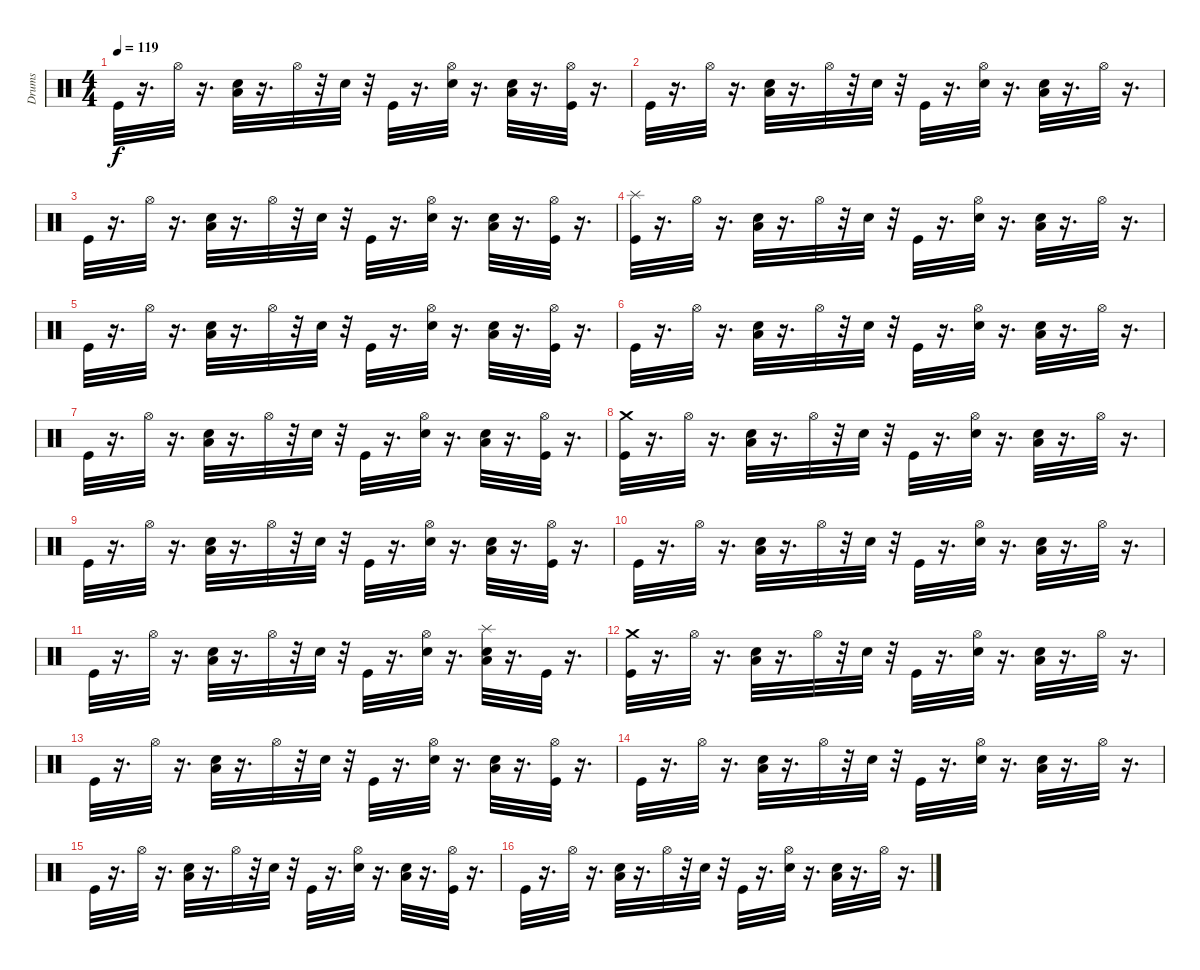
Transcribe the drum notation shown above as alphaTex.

\track ("Drums" "Drums") {instrument percussion}
\staff {score}
\articulation defaults
\ts (4 4)
\tempo 119
\clef neutral
\ks c "Kick (hit)".32{dy f}
r.16{d} "Hi-Hat (open)".32 r.16{d} ("Low Floor Tom (hit)" "Hand Clap (hit)").32 r.16{d} "Hi-Hat (open)".32 r.32 "Hand Clap (hit)".32 r.32 "Kick (hit)".32 r.16{d} ("Hi-Hat (open)" "Hand Clap (hit)").32 r.16{d} ("Low Floor Tom (hit)" "Hand Clap (hit)").32 r.16{d} ("Kick (hit)" "Hi-Hat (open)").32 r.16{d} |
"Kick (hit)".32 r.16{d} "Hi-Hat (open)".32 r.16{d} ("Low Floor Tom (hit)" "Hand Clap (hit)").32 r.16{d} "Hi-Hat (open)".32 r.32 "Hand Clap (hit)".32 r.32 "Kick (hit)".32 r.16{d} ("Hi-Hat (open)" "Hand Clap (hit)").32 r.16{d} ("Low Floor Tom (hit)" "Hand Clap (hit)").32 r.16{d} "Hi-Hat (open)".32 r.16{d} |
"Kick (hit)".32 r.16{d} "Hi-Hat (open)".32 r.16{d} ("Low Floor Tom (hit)" "Hand Clap (hit)").32 r.16{d} "Hi-Hat (open)".32 r.32 "Hand Clap (hit)".32 r.32 "Kick (hit)".32 r.16{d} ("Hi-Hat (open)" "Hand Clap (hit)").32 r.16{d} ("Low Floor Tom (hit)" "Hand Clap (hit)").32 r.16{d} ("Kick (hit)" "Hi-Hat (open)").32 r.16{d} |
("Splash (hit)" "Kick (hit)").32 r.16{d} "Hi-Hat (open)".32 r.16{d} ("Low Floor Tom (hit)" "Hand Clap (hit)").32 r.16{d} "Hi-Hat (open)".32 r.32 "Hand Clap (hit)".32 r.32 "Kick (hit)".32 r.16{d} ("Hi-Hat (open)" "Hand Clap (hit)").32 r.16{d} ("Low Floor Tom (hit)" "Hand Clap (hit)").32 r.16{d} "Hi-Hat (open)".32 r.16{d} |
"Kick (hit)".32 r.16{d} "Hi-Hat (open)".32 r.16{d} ("Low Floor Tom (hit)" "Hand Clap (hit)").32 r.16{d} "Hi-Hat (open)".32 r.32 "Hand Clap (hit)".32 r.32 "Kick (hit)".32 r.16{d} ("Hi-Hat (open)" "Hand Clap (hit)").32 r.16{d} ("Low Floor Tom (hit)" "Hand Clap (hit)").32 r.16{d} ("Kick (hit)" "Hi-Hat (open)").32 r.16{d} |
"Kick (hit)".32 r.16{d} "Hi-Hat (open)".32 r.16{d} ("Low Floor Tom (hit)" "Hand Clap (hit)").32 r.16{d} "Hi-Hat (open)".32 r.32 "Hand Clap (hit)".32 r.32 "Kick (hit)".32 r.16{d} ("Hi-Hat (open)" "Hand Clap (hit)").32 r.16{d} ("Low Floor Tom (hit)" "Hand Clap (hit)").32 r.16{d} "Hi-Hat (open)".32 r.16{d} |
"Kick (hit)".32 r.16{d} "Hi-Hat (open)".32 r.16{d} ("Low Floor Tom (hit)" "Hand Clap (hit)").32 r.16{d} "Hi-Hat (open)".32 r.32 "Hand Clap (hit)".32 r.32 "Kick (hit)".32 r.16{d} ("Hi-Hat (open)" "Hand Clap (hit)").32 r.16{d} ("Low Floor Tom (hit)" "Hand Clap (hit)").32 r.16{d} ("Kick (hit)" "Hi-Hat (open)").32 r.16{d} |
("Crash medium (hit)" "Kick (hit)").32 r.16{d} "Hi-Hat (open)".32 r.16{d} ("Low Floor Tom (hit)" "Hand Clap (hit)").32 r.16{d} "Hi-Hat (open)".32 r.32 "Hand Clap (hit)".32 r.32 "Kick (hit)".32 r.16{d} ("Hi-Hat (open)" "Hand Clap (hit)").32 r.16{d} ("Low Floor Tom (hit)" "Hand Clap (hit)").32 r.16{d} "Hi-Hat (open)".32 r.16{d} |
"Kick (hit)".32 r.16{d} "Hi-Hat (open)".32 r.16{d} ("Low Floor Tom (hit)" "Hand Clap (hit)").32 r.16{d} "Hi-Hat (open)".32 r.32 "Hand Clap (hit)".32 r.32 "Kick (hit)".32 r.16{d} ("Hi-Hat (open)" "Hand Clap (hit)").32 r.16{d} ("Low Floor Tom (hit)" "Hand Clap (hit)").32 r.16{d} ("Kick (hit)" "Hi-Hat (open)").32 r.16{d} |
"Kick (hit)".32 r.16{d} "Hi-Hat (open)".32 r.16{d} ("Low Floor Tom (hit)" "Hand Clap (hit)").32 r.16{d} "Hi-Hat (open)".32 r.32 "Hand Clap (hit)".32 r.32 "Kick (hit)".32 r.16{d} ("Hi-Hat (open)" "Hand Clap (hit)").32 r.16{d} ("Low Floor Tom (hit)" "Hand Clap (hit)").32 r.16{d} "Hi-Hat (open)".32 r.16{d} |
"Kick (hit)".32 r.16{d} "Hi-Hat (open)".32 r.16{d} ("Low Floor Tom (hit)" "Hand Clap (hit)").32 r.16{d} "Hi-Hat (open)".32 r.32 "Hand Clap (hit)".32 r.32 "Kick (hit)".32 r.16{d} ("Hi-Hat (open)" "Hand Clap (hit)").32 r.16{d} ("Splash (hit)" "Low Floor Tom (hit)" "Hand Clap (hit)").32 r.16{d} "Kick (hit)".32 r.16{d} |
("Crash medium (hit)" "Kick (hit)").32 r.16{d} "Hi-Hat (open)".32 r.16{d} ("Low Floor Tom (hit)" "Hand Clap (hit)").32 r.16{d} "Hi-Hat (open)".32 r.32 "Hand Clap (hit)".32 r.32 "Kick (hit)".32 r.16{d} ("Hi-Hat (open)" "Hand Clap (hit)").32 r.16{d} ("Low Floor Tom (hit)" "Hand Clap (hit)").32 r.16{d} "Hi-Hat (open)".32 r.16{d} |
"Kick (hit)".32 r.16{d} "Hi-Hat (open)".32 r.16{d} ("Low Floor Tom (hit)" "Hand Clap (hit)").32 r.16{d} "Hi-Hat (open)".32 r.32 "Hand Clap (hit)".32 r.32 "Kick (hit)".32 r.16{d} ("Hi-Hat (open)" "Hand Clap (hit)").32 r.16{d} ("Low Floor Tom (hit)" "Hand Clap (hit)").32 r.16{d} ("Kick (hit)" "Hi-Hat (open)").32 r.16{d} |
"Kick (hit)".32 r.16{d} "Hi-Hat (open)".32 r.16{d} ("Low Floor Tom (hit)" "Hand Clap (hit)").32 r.16{d} "Hi-Hat (open)".32 r.32 "Hand Clap (hit)".32 r.32 "Kick (hit)".32 r.16{d} ("Hi-Hat (open)" "Hand Clap (hit)").32 r.16{d} ("Low Floor Tom (hit)" "Hand Clap (hit)").32 r.16{d} "Hi-Hat (open)".32 r.16{d} |
"Kick (hit)".32 r.16{d} "Hi-Hat (open)".32 r.16{d} ("Low Floor Tom (hit)" "Hand Clap (hit)").32 r.16{d} "Hi-Hat (open)".32 r.32 "Hand Clap (hit)".32 r.32 "Kick (hit)".32 r.16{d} ("Hi-Hat (open)" "Hand Clap (hit)").32 r.16{d} ("Low Floor Tom (hit)" "Hand Clap (hit)").32 r.16{d} ("Kick (hit)" "Hi-Hat (open)").32 r.16{d} |
"Kick (hit)".32 r.16{d} "Hi-Hat (open)".32 r.16{d} ("Low Floor Tom (hit)" "Hand Clap (hit)").32 r.16{d} "Hi-Hat (open)".32 r.32 "Hand Clap (hit)".32 r.32 "Kick (hit)".32 r.16{d} ("Hi-Hat (open)" "Hand Clap (hit)").32 r.16{d} ("Low Floor Tom (hit)" "Hand Clap (hit)").32 r.16{d} "Hi-Hat (open)".32 r.16{d}
